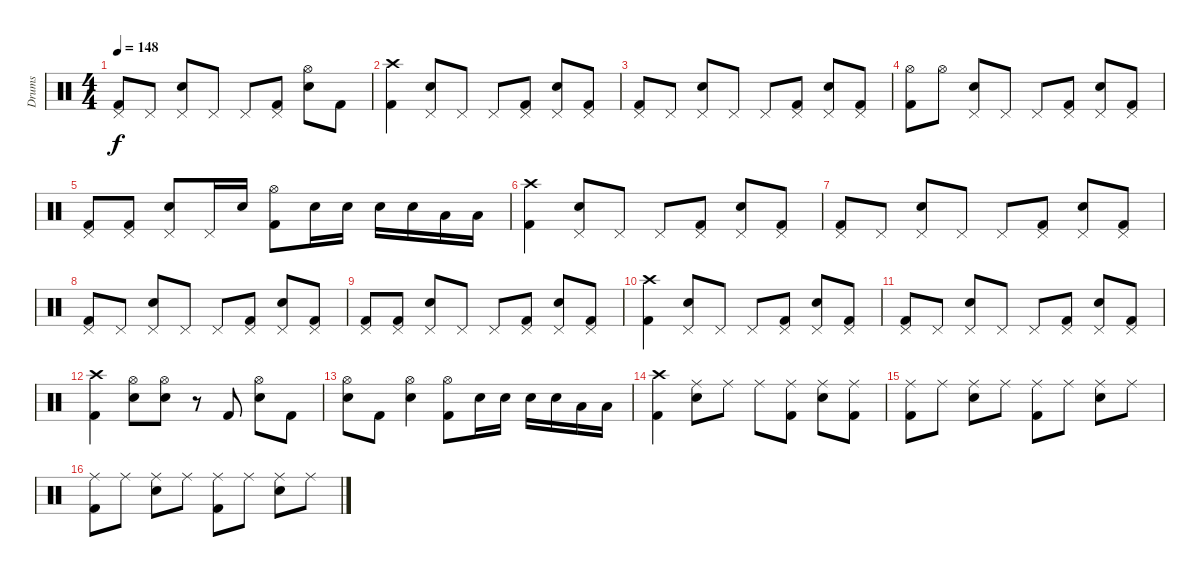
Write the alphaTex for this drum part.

\track ("Drums" "Drums") {instrument percussion}
\staff {score}
\articulation defaults
\ts (4 4)
\tempo 148
\clef neutral
\ks c
("Pedal Hi-Hat (hit)" "Kick (hit) 2").8{dy f} "Pedal Hi-Hat (hit)".8 ("Pedal Hi-Hat (hit)" "Electric Snare (hit)").8 "Pedal Hi-Hat (hit)".8 "Pedal Hi-Hat (hit)".8 ("Pedal Hi-Hat (hit)" "Kick (hit) 2").8 ("Hi-Hat (open)" "Electric Snare (hit)").8 "Kick (hit) 2".8 |
("Crash high (hit)" "Kick (hit) 2").4 ("Pedal Hi-Hat (hit)" "Electric Snare (hit)").8 "Pedal Hi-Hat (hit)".8 "Pedal Hi-Hat (hit)".8 ("Pedal Hi-Hat (hit)" "Kick (hit) 2").8 ("Pedal Hi-Hat (hit)" "Electric Snare (hit)").8 ("Pedal Hi-Hat (hit)" "Kick (hit) 2").8 |
("Pedal Hi-Hat (hit)" "Kick (hit) 2").8 "Pedal Hi-Hat (hit)".8 ("Pedal Hi-Hat (hit)" "Electric Snare (hit)").8 "Pedal Hi-Hat (hit)".8 "Pedal Hi-Hat (hit)".8 ("Pedal Hi-Hat (hit)" "Kick (hit) 2").8 ("Pedal Hi-Hat (hit)" "Electric Snare (hit)").8 ("Pedal Hi-Hat (hit)" "Kick (hit) 2").8 |
("Hi-Hat (open)" "Kick (hit) 2").8 "Hi-Hat (open)".8 ("Pedal Hi-Hat (hit)" "Electric Snare (hit)").8 "Pedal Hi-Hat (hit)".8 "Pedal Hi-Hat (hit)".8 ("Pedal Hi-Hat (hit)" "Kick (hit) 2").8 ("Pedal Hi-Hat (hit)" "Electric Snare (hit)").8 ("Pedal Hi-Hat (hit)" "Kick (hit) 2").8 |
("Pedal Hi-Hat (hit)" "Kick (hit) 2").8 ("Pedal Hi-Hat (hit)" "Kick (hit) 2").8 ("Pedal Hi-Hat (hit)" "Electric Snare (hit)").8 "Pedal Hi-Hat (hit)".16 "Electric Snare (hit)".16 ("Hi-Hat (open)" "Kick (hit) 2").8 "Electric Snare (hit)".16 "Electric Snare (hit)".16 "Electric Snare (hit)".16 "Electric Snare (hit)".16 "Low Tom (hit)".16 "Low Tom (hit)".16 |
("Crash high (hit)" "Kick (hit) 2").4 ("Pedal Hi-Hat (hit)" "Electric Snare (hit)").8 "Pedal Hi-Hat (hit)".8 "Pedal Hi-Hat (hit)".8 ("Pedal Hi-Hat (hit)" "Kick (hit) 2").8 ("Pedal Hi-Hat (hit)" "Electric Snare (hit)").8 ("Pedal Hi-Hat (hit)" "Kick (hit) 2").8 |
("Pedal Hi-Hat (hit)" "Kick (hit) 2").8 "Pedal Hi-Hat (hit)".8 ("Pedal Hi-Hat (hit)" "Electric Snare (hit)").8 "Pedal Hi-Hat (hit)".8 "Pedal Hi-Hat (hit)".8 ("Pedal Hi-Hat (hit)" "Kick (hit) 2").8 ("Pedal Hi-Hat (hit)" "Electric Snare (hit)").8 ("Pedal Hi-Hat (hit)" "Kick (hit) 2").8 |
("Pedal Hi-Hat (hit)" "Kick (hit) 2").8 "Pedal Hi-Hat (hit)".8 ("Pedal Hi-Hat (hit)" "Electric Snare (hit)").8 "Pedal Hi-Hat (hit)".8 "Pedal Hi-Hat (hit)".8 ("Pedal Hi-Hat (hit)" "Kick (hit) 2").8 ("Pedal Hi-Hat (hit)" "Electric Snare (hit)").8 ("Pedal Hi-Hat (hit)" "Kick (hit) 2").8 |
("Pedal Hi-Hat (hit)" "Kick (hit) 2").8 ("Pedal Hi-Hat (hit)" "Kick (hit) 2").8 ("Pedal Hi-Hat (hit)" "Electric Snare (hit)").8 "Pedal Hi-Hat (hit)".8 "Pedal Hi-Hat (hit)".8 ("Pedal Hi-Hat (hit)" "Kick (hit) 2").8 ("Pedal Hi-Hat (hit)" "Electric Snare (hit)").8 ("Pedal Hi-Hat (hit)" "Kick (hit) 2").8 |
("Crash high (hit)" "Kick (hit) 2").4 ("Pedal Hi-Hat (hit)" "Electric Snare (hit)").8 "Pedal Hi-Hat (hit)".8 "Pedal Hi-Hat (hit)".8 ("Pedal Hi-Hat (hit)" "Kick (hit) 2").8 ("Pedal Hi-Hat (hit)" "Electric Snare (hit)").8 ("Pedal Hi-Hat (hit)" "Kick (hit) 2").8 |
("Pedal Hi-Hat (hit)" "Kick (hit) 2").8 "Pedal Hi-Hat (hit)".8 ("Pedal Hi-Hat (hit)" "Electric Snare (hit)").8 "Pedal Hi-Hat (hit)".8 "Pedal Hi-Hat (hit)".8 ("Pedal Hi-Hat (hit)" "Kick (hit) 2").8 ("Pedal Hi-Hat (hit)" "Electric Snare (hit)").8 ("Pedal Hi-Hat (hit)" "Kick (hit) 2").8 |
("Crash high (hit)" "Kick (hit) 2").4 ("Hi-Hat (open)" "Electric Snare (hit)").8 ("Hi-Hat (open)" "Electric Snare (hit)").8 r.8 "Kick (hit) 2".8 ("Hi-Hat (open)" "Electric Snare (hit)").8 "Kick (hit) 2".8 |
("Hi-Hat (open)" "Electric Snare (hit)").8 "Kick (hit) 2".8 ("Hi-Hat (open)" "Electric Snare (hit)").4 ("Hi-Hat (open)" "Kick (hit) 2").8 "Electric Snare (hit)".16 "Electric Snare (hit)".16 "Electric Snare (hit)".16 "Electric Snare (hit)".16 "Low Tom (hit)".16 "Low Tom (hit)".16 |
("Crash high (hit)" "Kick (hit) 2").4 ("Ride (middle)" "Electric Snare (hit)").8 "Ride (middle)".8 "Ride (middle)".8 ("Ride (middle)" "Kick (hit) 2").8 ("Ride (middle)" "Electric Snare (hit)").8 ("Ride (middle)" "Kick (hit) 2").8 |
("Ride (middle)" "Kick (hit) 2").8 "Ride (middle)".8 ("Ride (middle)" "Electric Snare (hit)").8 "Ride (middle)".8 ("Ride (middle)" "Kick (hit) 2").8 "Ride (middle)".8 ("Ride (middle)" "Electric Snare (hit)").8 "Ride (middle)".8 |
("Ride (middle)" "Kick (hit) 2").8 "Ride (middle)".8 ("Ride (middle)" "Electric Snare (hit)").8 "Ride (middle)".8 ("Ride (middle)" "Kick (hit) 2").8 "Ride (middle)".8 ("Ride (middle)" "Electric Snare (hit)").8 "Ride (middle)".8
